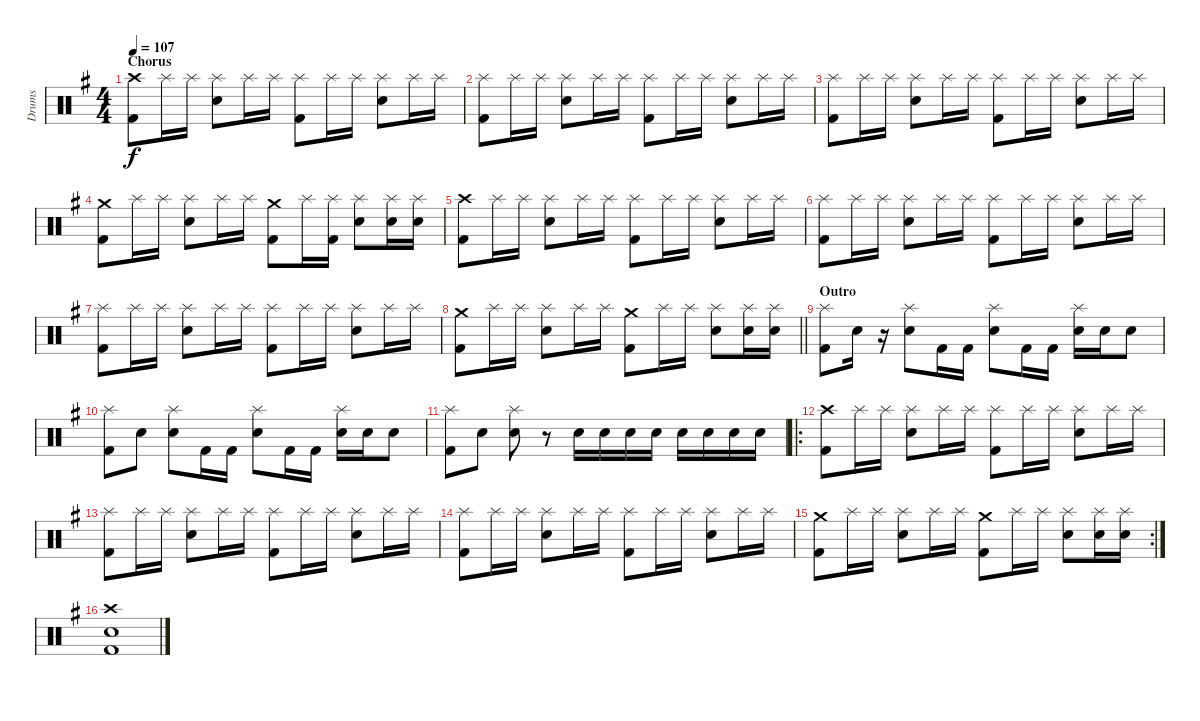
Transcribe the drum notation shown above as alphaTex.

\track ("Drums" "Drums") {instrument percussion}
\staff {score}
\articulation defaults
\ts (4 4)
\section ("" "Chorus")
\tempo 107
\clef neutral
\ks eminor
("Crash high (hit)" "Kick (hit) 2").8{dy f} "Splash (hit)".16 "Splash (hit)".16 ("Splash (hit)" "Snare (hit) 2").8 "Splash (hit)".16 "Splash (hit)".16 ("Splash (hit)" "Kick (hit) 2").8 "Splash (hit)".16 "Splash (hit)".16 ("Splash (hit)" "Snare (hit) 2").8 "Splash (hit)".16 "Splash (hit)".16 |
("Splash (hit)" "Kick (hit) 2").8 "Splash (hit)".16 "Splash (hit)".16 ("Splash (hit)" "Snare (hit) 2").8 "Splash (hit)".16 "Splash (hit)".16 ("Splash (hit)" "Kick (hit) 2").8 "Splash (hit)".16 "Splash (hit)".16 ("Splash (hit)" "Snare (hit) 2").8 "Splash (hit)".16 "Splash (hit)".16 |
("Splash (hit)" "Kick (hit) 2").8 "Splash (hit)".16 "Splash (hit)".16 ("Splash (hit)" "Snare (hit) 2").8 "Splash (hit)".16 "Splash (hit)".16 ("Splash (hit)" "Kick (hit) 2").8 "Splash (hit)".16 "Splash (hit)".16 ("Splash (hit)" "Snare (hit) 2").8 "Splash (hit)".16 "Splash (hit)".16 |
("Crash medium (hit)" "Kick (hit) 2").8 "Splash (hit)".16 "Splash (hit)".16 ("Splash (hit)" "Snare (hit) 2").8 "Splash (hit)".16 "Splash (hit)".16 ("Crash medium (hit)" "Kick (hit) 2").8 "Splash (hit)".16 ("Splash (hit)" "Kick (hit) 2").16 ("Splash (hit)" "Snare (hit) 2").8 ("Splash (hit)" "Snare (hit) 2").16 ("Splash (hit)" "Snare (hit) 2").16 |
("Crash high (hit)" "Kick (hit) 2").8 "Splash (hit)".16 "Splash (hit)".16 ("Splash (hit)" "Snare (hit) 2").8 "Splash (hit)".16 "Splash (hit)".16 ("Splash (hit)" "Kick (hit) 2").8 "Splash (hit)".16 "Splash (hit)".16 ("Splash (hit)" "Snare (hit) 2").8 "Splash (hit)".16 "Splash (hit)".16 |
("Splash (hit)" "Kick (hit) 2").8 "Splash (hit)".16 "Splash (hit)".16 ("Splash (hit)" "Snare (hit) 2").8 "Splash (hit)".16 "Splash (hit)".16 ("Splash (hit)" "Kick (hit) 2").8 "Splash (hit)".16 "Splash (hit)".16 ("Splash (hit)" "Snare (hit) 2").8 "Splash (hit)".16 "Splash (hit)".16 |
("Splash (hit)" "Kick (hit) 2").8 "Splash (hit)".16 "Splash (hit)".16 ("Splash (hit)" "Snare (hit) 2").8 "Splash (hit)".16 "Splash (hit)".16 ("Splash (hit)" "Kick (hit) 2").8 "Splash (hit)".16 "Splash (hit)".16 ("Splash (hit)" "Snare (hit) 2").8 "Splash (hit)".16 "Splash (hit)".16 |
\barLineRight lightlight
("Crash medium (hit)" "Kick (hit) 2").8 "Splash (hit)".16 "Splash (hit)".16 ("Splash (hit)" "Snare (hit) 2").8 "Splash (hit)".16 "Splash (hit)".16 ("Crash medium (hit)" "Kick (hit) 2").8 "Splash (hit)".16 "Splash (hit)".16 ("Splash (hit)" "Snare (hit) 2").8 ("Splash (hit)" "Snare (hit) 2").16 ("Splash (hit)" "Snare (hit) 2").16 |
\section ("" "Outro")
("Splash (hit)" "Kick (hit) 2").8 "Snare (hit) 2".16 r.16 ("Splash (hit)" "Snare (hit) 2").8 "Kick (hit) 2".16 "Kick (hit) 2".16 ("Splash (hit)" "Snare (hit) 2").8 "Kick (hit) 2".16 "Kick (hit) 2".16 ("Splash (hit)" "Snare (hit) 2").16 "Snare (hit) 2".16 "Snare (hit) 2".8 |
("Splash (hit)" "Kick (hit) 2").8 "Snare (hit) 2".8 ("Splash (hit)" "Snare (hit) 2").8 "Kick (hit) 2".16 "Kick (hit) 2".16 ("Splash (hit)" "Snare (hit) 2").8 "Kick (hit) 2".16 "Kick (hit) 2".16 ("Splash (hit)" "Snare (hit) 2").16 "Snare (hit) 2".16 "Snare (hit) 2".8 |
("Splash (hit)" "Kick (hit) 2").8 "Snare (hit) 2".8 ("Splash (hit)" "Snare (hit) 2").8 r.8 "Snare (hit) 2".16 "Snare (hit) 2".16 "Snare (hit) 2".16 "Snare (hit) 2".16 "Snare (hit) 2".16 "Snare (hit) 2".16 "Snare (hit) 2".16 "Snare (hit) 2".16 |
\ro
("Crash high (hit)" "Kick (hit) 2").8 "Splash (hit)".16 "Splash (hit)".16 ("Splash (hit)" "Snare (hit) 2").8 "Splash (hit)".16 "Splash (hit)".16 ("Splash (hit)" "Kick (hit) 2").8 "Splash (hit)".16 "Splash (hit)".16 ("Splash (hit)" "Snare (hit) 2").8 "Splash (hit)".16 "Splash (hit)".16 |
("Splash (hit)" "Kick (hit) 2").8 "Splash (hit)".16 "Splash (hit)".16 ("Splash (hit)" "Snare (hit) 2").8 "Splash (hit)".16 "Splash (hit)".16 ("Splash (hit)" "Kick (hit) 2").8 "Splash (hit)".16 "Splash (hit)".16 ("Splash (hit)" "Snare (hit) 2").8 "Splash (hit)".16 "Splash (hit)".16 |
("Splash (hit)" "Kick (hit) 2").8 "Splash (hit)".16 "Splash (hit)".16 ("Splash (hit)" "Snare (hit) 2").8 "Splash (hit)".16 "Splash (hit)".16 ("Splash (hit)" "Kick (hit) 2").8 "Splash (hit)".16 "Splash (hit)".16 ("Splash (hit)" "Snare (hit) 2").8 "Splash (hit)".16 "Splash (hit)".16 |
\rc 2
("Crash medium (hit)" "Kick (hit) 2").8 "Splash (hit)".16 "Splash (hit)".16 ("Splash (hit)" "Snare (hit) 2").8 "Splash (hit)".16 "Splash (hit)".16 ("Crash medium (hit)" "Kick (hit) 2").8 "Splash (hit)".16 "Splash (hit)".16 ("Splash (hit)" "Snare (hit) 2").8 ("Splash (hit)" "Snare (hit) 2").16 ("Splash (hit)" "Snare (hit) 2").16 |
("Crash high (hit)" "Snare (hit) 2" "Kick (hit) 2").1
